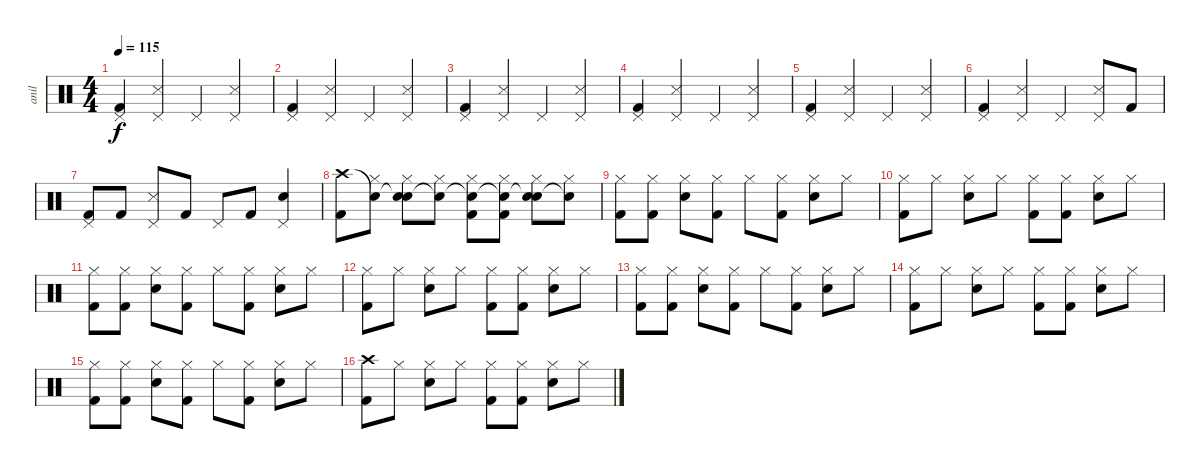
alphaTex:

\track ("anil " "anil ") {instrument percussion}
\staff {score}
\articulation defaults
\ts (4 4)
\tempo 115
\clef neutral
\ks c
("Pedal Hi-Hat (hit)" "Kick (hit) 2").4{dy f} ("Pedal Hi-Hat (hit)" "Snare (side stick) 3").4 "Pedal Hi-Hat (hit)".4 ("Pedal Hi-Hat (hit)" "Snare (side stick) 3").4 |
("Pedal Hi-Hat (hit)" "Kick (hit) 2").4 ("Pedal Hi-Hat (hit)" "Snare (side stick) 3").4 "Pedal Hi-Hat (hit)".4 ("Pedal Hi-Hat (hit)" "Snare (side stick) 3").4 |
("Pedal Hi-Hat (hit)" "Kick (hit) 2").4 ("Pedal Hi-Hat (hit)" "Snare (side stick) 3").4 "Pedal Hi-Hat (hit)".4 ("Pedal Hi-Hat (hit)" "Snare (side stick) 3").4 |
("Pedal Hi-Hat (hit)" "Kick (hit) 2").4 ("Pedal Hi-Hat (hit)" "Snare (side stick) 3").4 "Pedal Hi-Hat (hit)".4 ("Pedal Hi-Hat (hit)" "Snare (side stick) 3").4 |
("Pedal Hi-Hat (hit)" "Kick (hit) 2").4 ("Pedal Hi-Hat (hit)" "Snare (side stick) 3").4 "Pedal Hi-Hat (hit)".4 ("Pedal Hi-Hat (hit)" "Snare (side stick) 3").4 |
("Pedal Hi-Hat (hit)" "Kick (hit) 2").4 ("Pedal Hi-Hat (hit)" "Snare (side stick) 3").4 "Pedal Hi-Hat (hit)".4 ("Pedal Hi-Hat (hit)" "Snare (side stick) 3").8 "Kick (hit) 2".8 |
("Pedal Hi-Hat (hit)" "Kick (hit) 2").8 "Kick (hit) 2".8 ("Pedal Hi-Hat (hit)" "Snare (side stick) 3").8 "Kick (hit) 2".8 "Pedal Hi-Hat (hit)".8 "Kick (hit) 2".8 ("Pedal Hi-Hat (hit)" "Snare (hit) 2").4 |
("Crash high (hit)" "Kick (hit) 2").8 ("Snare (hit)"{t} "Hi-Hat (closed)").8 ("Snare (hit)"{t} "Hi-Hat (closed)" "Snare (hit) 2").8 ("Snare (hit)"{t} "Hi-Hat (closed)").8 ("Snare (hit)"{t} "Hi-Hat (closed)" "Kick (hit) 2").8 ("Snare (hit)"{t} "Hi-Hat (closed)" "Kick (hit) 2").8 ("Snare (hit)"{t} "Hi-Hat (closed)" "Snare (hit) 2").8 ("Snare (hit)"{t} "Hi-Hat (closed)").8 |
("Hi-Hat (closed)" "Kick (hit) 2").8 ("Hi-Hat (closed)" "Kick (hit) 2").8 ("Hi-Hat (closed)" "Snare (hit) 2").8 ("Hi-Hat (closed)" "Kick (hit) 2").8 "Hi-Hat (closed)".8 ("Hi-Hat (closed)" "Kick (hit) 2").8 ("Hi-Hat (closed)" "Snare (hit) 2").8 "Hi-Hat (closed)".8 |
("Hi-Hat (closed)" "Kick (hit) 2").8 "Hi-Hat (closed)".8 ("Hi-Hat (closed)" "Snare (hit) 2").8 "Hi-Hat (closed)".8 ("Hi-Hat (closed)" "Kick (hit) 2").8 ("Hi-Hat (closed)" "Kick (hit) 2").8 ("Hi-Hat (closed)" "Snare (hit) 2").8 "Hi-Hat (closed)".8 |
("Hi-Hat (closed)" "Kick (hit) 2").8 ("Hi-Hat (closed)" "Kick (hit) 2").8 ("Hi-Hat (closed)" "Snare (hit) 2").8 ("Hi-Hat (closed)" "Kick (hit) 2").8 "Hi-Hat (closed)".8 ("Hi-Hat (closed)" "Kick (hit) 2").8 ("Hi-Hat (closed)" "Snare (hit) 2").8 "Hi-Hat (closed)".8 |
("Hi-Hat (closed)" "Kick (hit) 2").8 "Hi-Hat (closed)".8 ("Hi-Hat (closed)" "Snare (hit) 2").8 "Hi-Hat (closed)".8 ("Hi-Hat (closed)" "Kick (hit) 2").8 ("Hi-Hat (closed)" "Kick (hit) 2").8 ("Hi-Hat (closed)" "Snare (hit) 2").8 "Hi-Hat (closed)".8 |
("Hi-Hat (closed)" "Kick (hit) 2").8 ("Hi-Hat (closed)" "Kick (hit) 2").8 ("Hi-Hat (closed)" "Snare (hit) 2").8 ("Hi-Hat (closed)" "Kick (hit) 2").8 "Hi-Hat (closed)".8 ("Hi-Hat (closed)" "Kick (hit) 2").8 ("Hi-Hat (closed)" "Snare (hit) 2").8 "Hi-Hat (closed)".8 |
("Hi-Hat (closed)" "Kick (hit) 2").8 "Hi-Hat (closed)".8 ("Hi-Hat (closed)" "Snare (hit) 2").8 "Hi-Hat (closed)".8 ("Hi-Hat (closed)" "Kick (hit) 2").8 ("Hi-Hat (closed)" "Kick (hit) 2").8 ("Hi-Hat (closed)" "Snare (hit) 2").8 "Hi-Hat (closed)".8 |
("Hi-Hat (closed)" "Kick (hit) 2").8 ("Hi-Hat (closed)" "Kick (hit) 2").8 ("Hi-Hat (closed)" "Snare (hit) 2").8 ("Hi-Hat (closed)" "Kick (hit) 2").8 "Hi-Hat (closed)".8 ("Hi-Hat (closed)" "Kick (hit) 2").8 ("Hi-Hat (closed)" "Snare (hit) 2").8 "Hi-Hat (closed)".8 |
("Crash high (hit)" "Kick (hit) 2").8 "Hi-Hat (closed)".8 ("Hi-Hat (closed)" "Snare (hit) 2").8 "Hi-Hat (closed)".8 ("Hi-Hat (closed)" "Kick (hit) 2").8 ("Hi-Hat (closed)" "Kick (hit) 2").8 ("Hi-Hat (closed)" "Snare (hit) 2").8 "Hi-Hat (closed)".8
